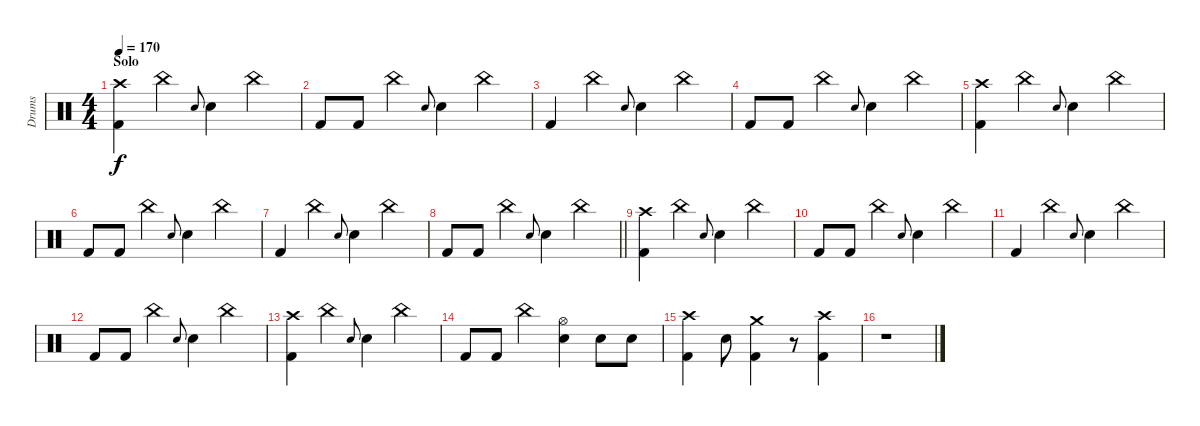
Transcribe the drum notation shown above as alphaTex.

\track ("Drums" "Drums") {instrument percussion}
\staff {score}
\articulation defaults
\ts (4 4)
\section ("" "Solo")
\tempo 170
\clef neutral
\ks c
("Crash high (hit)" "Kick (hit) 2").4{dy f} "China (hit)".4 "Electric Snare (hit)".8{gr onbeat} "Electric Snare (hit)".4 "China (hit)".4 |
"Kick (hit) 2".8 "Kick (hit) 2".8 "China (hit)".4 "Electric Snare (hit)".8{gr onbeat} "Electric Snare (hit)".4 "China (hit)".4 |
"Kick (hit) 2".4 "China (hit)".4 "Electric Snare (hit)".8{gr onbeat} "Electric Snare (hit)".4 "China (hit)".4 |
"Kick (hit) 2".8 "Kick (hit) 2".8 "China (hit)".4 "Electric Snare (hit)".8{gr onbeat} "Electric Snare (hit)".4 "China (hit)".4 |
("Crash high (hit)" "Kick (hit) 2").4 "China (hit)".4 "Electric Snare (hit)".8{gr onbeat} "Electric Snare (hit)".4 "China (hit)".4 |
"Kick (hit) 2".8 "Kick (hit) 2".8 "China (hit)".4 "Electric Snare (hit)".8{gr onbeat} "Electric Snare (hit)".4 "China (hit)".4 |
"Kick (hit) 2".4 "China (hit)".4 "Electric Snare (hit)".8{gr onbeat} "Electric Snare (hit)".4 "China (hit)".4 |
\barLineRight lightlight "Kick (hit) 2".8 "Kick (hit) 2".8 "China (hit)".4 "Electric Snare (hit)".8{gr onbeat} "Electric Snare (hit)".4 "China (hit)".4
|
("Crash high (hit)" "Kick (hit) 2").4 "China (hit)".4 "Electric Snare (hit)".8{gr onbeat} "Electric Snare (hit)".4 "China (hit)".4 |
"Kick (hit) 2".8 "Kick (hit) 2".8 "China (hit)".4 "Electric Snare (hit)".8{gr onbeat} "Electric Snare (hit)".4 "China (hit)".4 |
"Kick (hit) 2".4 "China (hit)".4 "Electric Snare (hit)".8{gr onbeat} "Electric Snare (hit)".4 "China (hit)".4 |
"Kick (hit) 2".8 "Kick (hit) 2".8 "China (hit)".4 "Electric Snare (hit)".8{gr onbeat} "Electric Snare (hit)".4 "China (hit)".4 |
("Crash high (hit)" "Kick (hit) 2").4 "China (hit)".4 "Electric Snare (hit)".8{gr onbeat} "Electric Snare (hit)".4 "China (hit)".4 |
"Kick (hit) 2".8 "Kick (hit) 2".8 "China (hit)".4 ("Hi-Hat (open)" "Electric Snare (hit)").4 "Electric Snare (hit)".8 "Electric Snare (hit)".8 |
("Crash high (hit)" "Kick (hit) 2").4 "Electric Snare (hit)".8 ("Crash medium (hit)" "Kick (hit) 2").4 r.8 ("Crash high (hit)" "Kick (hit) 2").4 |
r.1
